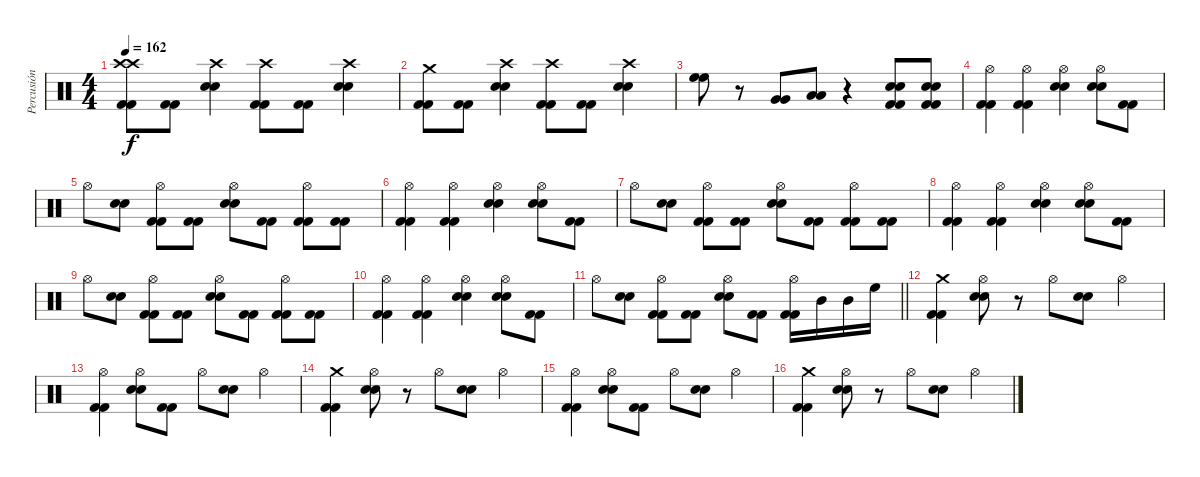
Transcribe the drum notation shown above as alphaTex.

\track ("Percusión" "Percusión") {instrument percussion}
\staff {score}
\articulation defaults
\ts (4 4)
\tempo 162
\clef neutral
\ks c
("Crash high (hit)" "Crash high (hit)" "Kick (hit) 2" "Kick (hit) 2").8{dy f} ("Kick (hit) 2" "Kick (hit) 2").8 ("Crash high (hit)" "Electric Snare (hit)" "Electric Snare (hit)").4 ("Crash high (hit)" "Kick (hit) 2" "Kick (hit) 2").8 ("Kick (hit) 2" "Kick (hit) 2").8 ("Crash high (hit)" "Electric Snare (hit)" "Electric Snare (hit)").4 |
("Crash medium (hit)" "Kick (hit) 2" "Kick (hit) 2").8 ("Kick (hit) 2" "Kick (hit) 2").8 ("Crash high (hit)" "Electric Snare (hit)" "Electric Snare (hit)").4 ("Crash high (hit)" "Kick (hit) 2" "Kick (hit) 2").8 ("Kick (hit) 2" "Kick (hit) 2").8 ("Crash high (hit)" "Electric Snare (hit)" "Electric Snare (hit)").4 |
("High Floor Tom (hit)" "High Floor Tom (hit)").8 r.8 ("Very Low Tom (hit)" "Very Low Tom (hit)").8 ("Low Tom (hit)" "Low Tom (hit)").8 r.4 ("Electric Snare (hit)" "Electric Snare (hit)" "Kick (hit) 2" "Kick (hit) 2").8 ("Electric Snare (hit)" "Electric Snare (hit)" "Kick (hit) 2" "Kick (hit) 2").8 |
("Hi-Hat (open)" "Kick (hit) 2" "Kick (hit) 2").4 ("Hi-Hat (open)" "Kick (hit) 2" "Kick (hit) 2").4 ("Hi-Hat (open)" "Electric Snare (hit)" "Electric Snare (hit)").4 ("Hi-Hat (open)" "Electric Snare (hit)" "Electric Snare (hit)").8 ("Kick (hit) 2" "Kick (hit) 2").8 |
"Hi-Hat (open)".8 ("Electric Snare (hit)" "Electric Snare (hit)").8 ("Hi-Hat (open)" "Kick (hit) 2" "Kick (hit) 2").8 ("Kick (hit) 2" "Kick (hit) 2").8 ("Hi-Hat (open)" "Electric Snare (hit)" "Electric Snare (hit)").8 ("Kick (hit) 2" "Kick (hit) 2").8 ("Hi-Hat (open)" "Kick (hit) 2" "Kick (hit) 2").8 ("Kick (hit) 2" "Kick (hit) 2").8 |
("Hi-Hat (open)" "Kick (hit) 2" "Kick (hit) 2").4 ("Hi-Hat (open)" "Kick (hit) 2" "Kick (hit) 2").4 ("Hi-Hat (open)" "Electric Snare (hit)" "Electric Snare (hit)").4 ("Hi-Hat (open)" "Electric Snare (hit)" "Electric Snare (hit)").8 ("Kick (hit) 2" "Kick (hit) 2").8 |
"Hi-Hat (open)".8 ("Electric Snare (hit)" "Electric Snare (hit)").8 ("Hi-Hat (open)" "Kick (hit) 2" "Kick (hit) 2").8 ("Kick (hit) 2" "Kick (hit) 2").8 ("Hi-Hat (open)" "Electric Snare (hit)" "Electric Snare (hit)").8 ("Kick (hit) 2" "Kick (hit) 2").8 ("Hi-Hat (open)" "Kick (hit) 2" "Kick (hit) 2").8 ("Kick (hit) 2" "Kick (hit) 2").8 |
("Hi-Hat (open)" "Kick (hit) 2" "Kick (hit) 2").4 ("Hi-Hat (open)" "Kick (hit) 2" "Kick (hit) 2").4 ("Hi-Hat (open)" "Electric Snare (hit)" "Electric Snare (hit)").4 ("Hi-Hat (open)" "Electric Snare (hit)" "Electric Snare (hit)").8 ("Kick (hit) 2" "Kick (hit) 2").8 |
"Hi-Hat (open)".8 ("Electric Snare (hit)" "Electric Snare (hit)").8 ("Hi-Hat (open)" "Kick (hit) 2" "Kick (hit) 2").8 ("Kick (hit) 2" "Kick (hit) 2").8 ("Hi-Hat (open)" "Electric Snare (hit)" "Electric Snare (hit)").8 ("Kick (hit) 2" "Kick (hit) 2").8 ("Hi-Hat (open)" "Kick (hit) 2" "Kick (hit) 2").8 ("Kick (hit) 2" "Kick (hit) 2").8 |
("Hi-Hat (open)" "Kick (hit) 2" "Kick (hit) 2").4 ("Hi-Hat (open)" "Kick (hit) 2" "Kick (hit) 2").4 ("Hi-Hat (open)" "Electric Snare (hit)" "Electric Snare (hit)").4 ("Hi-Hat (open)" "Electric Snare (hit)" "Electric Snare (hit)").8 ("Kick (hit) 2" "Kick (hit) 2").8 |
\barLineRight lightlight "Hi-Hat (open)".8
("Electric Snare (hit)" "Electric Snare (hit)").8 ("Hi-Hat (open)" "Kick (hit) 2" "Kick (hit) 2").8 ("Kick (hit) 2" "Kick (hit) 2").8 ("Hi-Hat (open)" "Electric Snare (hit)" "Electric Snare (hit)").8 ("Kick (hit) 2" "Kick (hit) 2").8 ("Hi-Hat (open)" "Kick (hit) 2" "Kick (hit) 2").16 "Mid Tom (hit)".16 "Mid Tom (hit)".16 "High Floor Tom (hit)".16 |
("Crash medium (hit)" "Kick (hit) 2" "Kick (hit) 2").4 ("Hi-Hat (open)" "Electric Snare (hit)" "Electric Snare (hit)").8 r.8 "Hi-Hat (open)".8 ("Electric Snare (hit)" "Electric Snare (hit)").8 "Hi-Hat (open)".4 |
("Hi-Hat (open)" "Kick (hit) 2" "Kick (hit) 2").4 ("Hi-Hat (open)" "Electric Snare (hit)" "Electric Snare (hit)").8 ("Kick (hit) 2" "Kick (hit) 2").8 "Hi-Hat (open)".8 ("Electric Snare (hit)" "Electric Snare (hit)").8 "Hi-Hat (open)".4 |
("Crash medium (hit)" "Kick (hit) 2" "Kick (hit) 2").4 ("Hi-Hat (open)" "Electric Snare (hit)" "Electric Snare (hit)").8 r.8 "Hi-Hat (open)".8 ("Electric Snare (hit)" "Electric Snare (hit)").8 "Hi-Hat (open)".4 |
("Hi-Hat (open)" "Kick (hit) 2" "Kick (hit) 2").4 ("Hi-Hat (open)" "Electric Snare (hit)" "Electric Snare (hit)").8 ("Kick (hit) 2" "Kick (hit) 2").8 "Hi-Hat (open)".8 ("Electric Snare (hit)" "Electric Snare (hit)").8 "Hi-Hat (open)".4 |
("Crash medium (hit)" "Kick (hit) 2" "Kick (hit) 2").4 ("Hi-Hat (open)" "Electric Snare (hit)" "Electric Snare (hit)").8 r.8 "Hi-Hat (open)".8 ("Electric Snare (hit)" "Electric Snare (hit)").8 "Hi-Hat (open)".4
